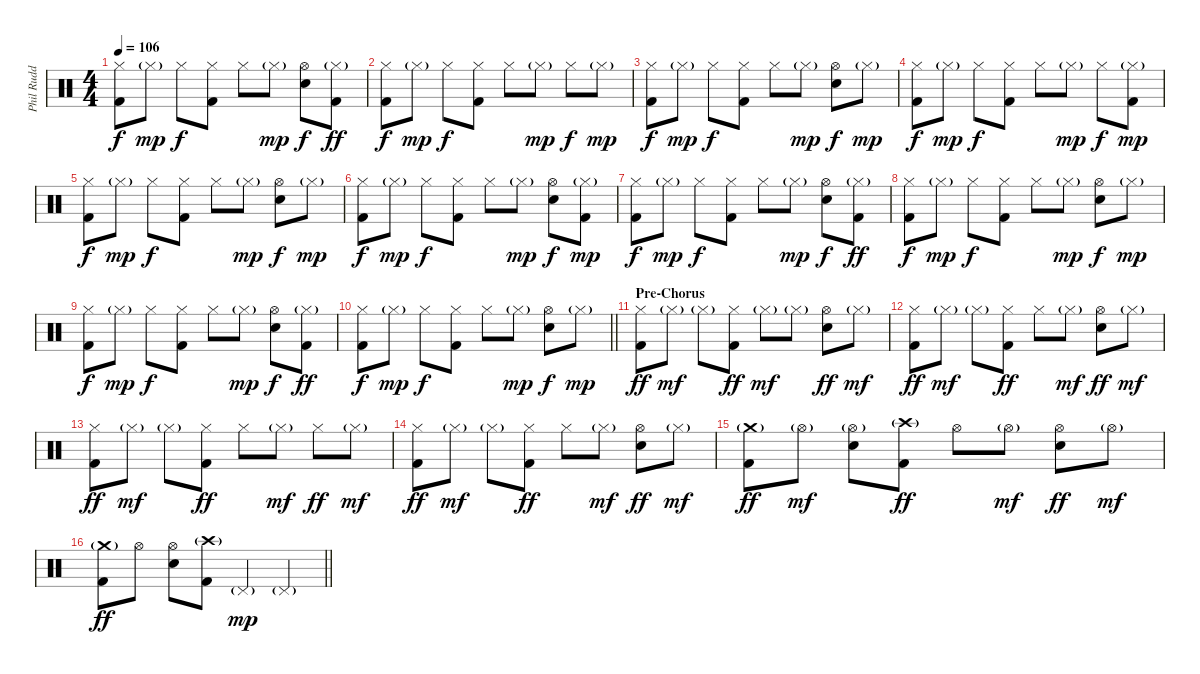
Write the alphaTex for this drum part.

\track ("Phil Rudd" "Phil Rudd") {instrument percussion}
\staff {score}
\articulation defaults
\ts (4 4)
\tempo 106
\clef neutral
\ks c
("Hi-Hat (closed)" "Kick (hit) 2").8{dy f} "Hi-Hat (closed)"{g}.8{dy mp} "Hi-Hat (closed)".8{dy f} ("Hi-Hat (closed)" "Kick (hit) 2").8 "Hi-Hat (closed)".8 "Hi-Hat (closed)"{g}.8{dy mp} ("Hi-Hat (open)" "Electric Snare (hit)").8{dy f} ("Hi-Hat (closed)"{g} "Kick (hit) 2").8{dy ff} |
("Hi-Hat (closed)" "Kick (hit) 2").8{dy f} "Hi-Hat (closed)"{g}.8{dy mp} "Hi-Hat (closed)".8{dy f} ("Hi-Hat (closed)" "Kick (hit) 2").8 "Hi-Hat (closed)".8 "Hi-Hat (closed)"{g}.8{dy mp} "Hi-Hat (closed)".8{dy f} "Hi-Hat (closed)"{g}.8{dy mp} |
("Hi-Hat (closed)" "Kick (hit) 2").8{dy f} "Hi-Hat (closed)"{g}.8{dy mp} "Hi-Hat (closed)".8{dy f} ("Hi-Hat (closed)" "Kick (hit) 2").8 "Hi-Hat (closed)".8 "Hi-Hat (closed)"{g}.8{dy mp} ("Hi-Hat (open)" "Electric Snare (hit)").8{dy f} "Hi-Hat (closed)"{g}.8{dy mp} |
("Hi-Hat (closed)" "Kick (hit) 2").8{dy f} "Hi-Hat (closed)"{g}.8{dy mp} "Hi-Hat (closed)".8{dy f} ("Hi-Hat (closed)" "Kick (hit) 2").8 "Hi-Hat (closed)".8 "Hi-Hat (closed)"{g}.8{dy mp} "Hi-Hat (closed)".8{dy f} ("Hi-Hat (closed)"{g} "Kick (hit) 2").8{dy mp} |
("Hi-Hat (closed)" "Kick (hit) 2").8{dy f} "Hi-Hat (closed)"{g}.8{dy mp} "Hi-Hat (closed)".8{dy f} ("Hi-Hat (closed)" "Kick (hit) 2").8 "Hi-Hat (closed)".8 "Hi-Hat (closed)"{g}.8{dy mp} ("Hi-Hat (open)" "Electric Snare (hit)").8{dy f} "Hi-Hat (closed)"{g}.8{dy mp} |
("Hi-Hat (closed)" "Kick (hit) 2").8{dy f} "Hi-Hat (closed)"{g}.8{dy mp} "Hi-Hat (closed)".8{dy f} ("Hi-Hat (closed)" "Kick (hit) 2").8 "Hi-Hat (closed)".8 "Hi-Hat (closed)"{g}.8{dy mp} ("Hi-Hat (open)" "Electric Snare (hit)").8{dy f} ("Hi-Hat (closed)"{g} "Kick (hit) 2").8{dy mp} |
("Hi-Hat (closed)" "Kick (hit) 2").8{dy f} "Hi-Hat (closed)"{g}.8{dy mp} "Hi-Hat (closed)".8{dy f} ("Hi-Hat (closed)" "Kick (hit) 2").8 "Hi-Hat (closed)".8 "Hi-Hat (closed)"{g}.8{dy mp} ("Hi-Hat (open)" "Electric Snare (hit)").8{dy f} ("Hi-Hat (closed)"{g} "Kick (hit) 2").8{dy ff} |
("Hi-Hat (closed)" "Kick (hit) 2").8{dy f} "Hi-Hat (closed)"{g}.8{dy mp} "Hi-Hat (closed)".8{dy f} ("Hi-Hat (closed)" "Kick (hit) 2").8 "Hi-Hat (closed)".8 "Hi-Hat (closed)"{g}.8{dy mp} ("Hi-Hat (open)" "Electric Snare (hit)").8{dy f} "Hi-Hat (closed)"{g}.8{dy mp} |
("Hi-Hat (closed)" "Kick (hit) 2").8{dy f} "Hi-Hat (closed)"{g}.8{dy mp} "Hi-Hat (closed)".8{dy f} ("Hi-Hat (closed)" "Kick (hit) 2").8 "Hi-Hat (closed)".8 "Hi-Hat (closed)"{g}.8{dy mp} ("Hi-Hat (open)" "Electric Snare (hit)").8{dy f} ("Hi-Hat (closed)"{g} "Kick (hit) 2").8{dy ff} |
\barLineRight lightlight
("Hi-Hat (closed)" "Kick (hit) 2").8{dy f} "Hi-Hat (closed)"{g}.8{dy mp} "Hi-Hat (closed)".8{dy f} ("Hi-Hat (closed)" "Kick (hit) 2").8 "Hi-Hat (closed)".8 "Hi-Hat (closed)"{g}.8{dy mp} ("Hi-Hat (open)" "Electric Snare (hit)").8{dy f} "Hi-Hat (closed)"{g}.8{dy mp} |
\section ("" "Pre-Chorus")
("Hi-Hat (closed)" "Kick (hit) 2").8{dy ff} "Hi-Hat (closed)"{g}.8{dy mf} "Hi-Hat (closed)"{g}.8 ("Hi-Hat (closed)" "Kick (hit) 2").8{dy ff} "Hi-Hat (closed)"{g}.8{dy mf} "Hi-Hat (closed)"{g}.8 ("Hi-Hat (open)" "Electric Snare (hit)").8{dy ff} "Hi-Hat (closed)"{g}.8{dy mf} |
("Hi-Hat (closed)" "Kick (hit) 2").8{dy ff} "Hi-Hat (closed)"{g}.8{dy mf} "Hi-Hat (closed)"{g}.8 ("Hi-Hat (closed)" "Kick (hit) 2").8{dy ff} "Hi-Hat (closed)".8 "Hi-Hat (closed)"{g}.8{dy mf} ("Hi-Hat (open)" "Electric Snare (hit)").8{dy ff} "Hi-Hat (closed)"{g}.8{dy mf} |
("Hi-Hat (closed)" "Kick (hit) 2").8{dy ff} "Hi-Hat (closed)"{g}.8{dy mf} "Hi-Hat (closed)"{g}.8 ("Hi-Hat (closed)" "Kick (hit) 2").8{dy ff} "Hi-Hat (closed)".8 "Hi-Hat (closed)"{g}.8{dy mf} "Hi-Hat (closed)".8{dy ff} "Hi-Hat (closed)"{g}.8{dy mf} |
("Hi-Hat (closed)" "Kick (hit) 2").8{dy ff} "Hi-Hat (closed)"{g}.8{dy mf} "Hi-Hat (closed)"{g}.8 ("Hi-Hat (closed)" "Kick (hit) 2").8{dy ff} "Hi-Hat (closed)".8 "Hi-Hat (closed)"{g}.8{dy mf} ("Hi-Hat (open)" "Electric Snare (hit)").8{dy ff} "Hi-Hat (closed)"{g}.8{dy mf} |
("Crash medium (hit)"{g} "Kick (hit) 2").8{dy ff} "Hi-Hat (open)"{g}.8{dy mf} ("Hi-Hat (open)"{g} "Electric Snare (hit)").8 ("Crash high (hit)"{g} "Kick (hit) 2").8{dy ff} "Hi-Hat (open)".8 "Hi-Hat (open)"{g}.8{dy mf} ("Hi-Hat (open)" "Electric Snare (hit)").8{dy ff} "Hi-Hat (open)"{g}.8{dy mf} |
\barLineRight lightlight
("Crash medium (hit)"{g} "Kick (hit) 2").8{dy ff} "Hi-Hat (open)".8 ("Hi-Hat (open)" "Electric Snare (hit)").8 ("Crash high (hit)"{g} "Kick (hit) 2").8 "Pedal Hi-Hat (hit)"{g}.4{dy mp} "Pedal Hi-Hat (hit)"{g}.4
